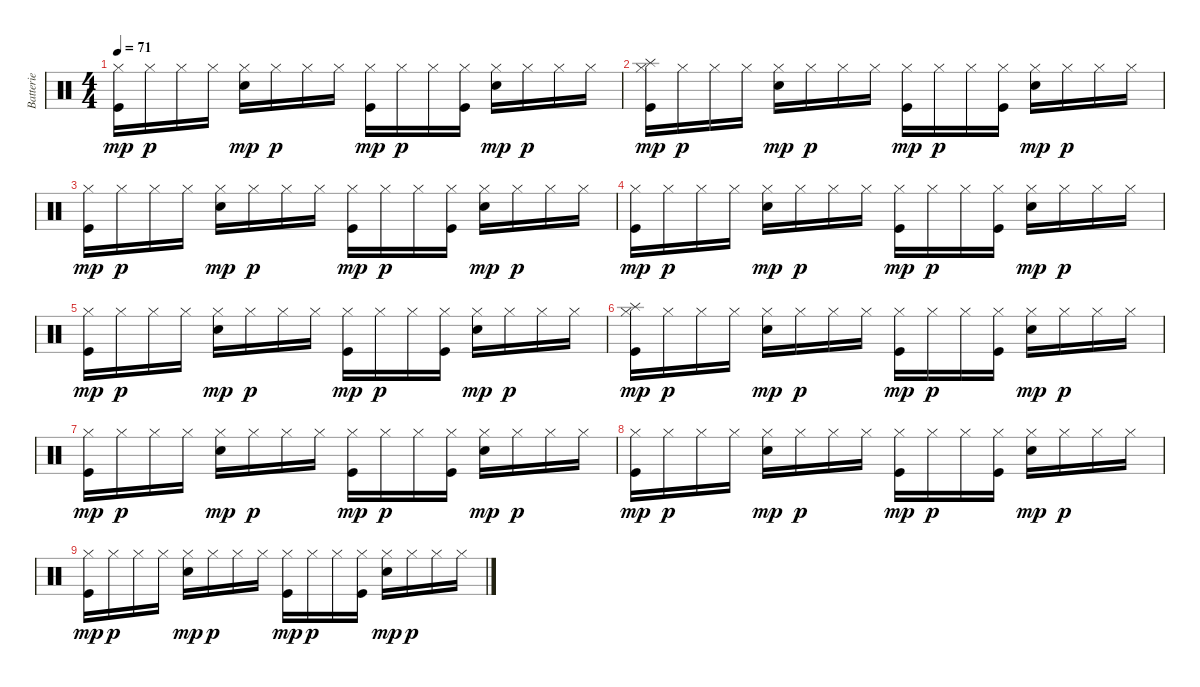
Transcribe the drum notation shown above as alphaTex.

\track ("Batterie" "Batterie") {instrument percussion}
\staff {score}
\articulation defaults
\ts (4 4)
\tempo 71
\clef neutral
\ks c
("Hi-Hat (closed)" "Kick (hit)").16{dy mp} "Hi-Hat (closed)".16{dy p} "Hi-Hat (closed)".16 "Hi-Hat (closed)".16 ("Hi-Hat (closed)" "Electric Snare (hit)").16{dy mp} "Hi-Hat (closed)".16{dy p} "Hi-Hat (closed)".16 "Hi-Hat (closed)".16 ("Hi-Hat (closed)" "Kick (hit)").16{dy mp} "Hi-Hat (closed)".16{dy p} "Hi-Hat (closed)".16 ("Hi-Hat (closed)" "Kick (hit)").16 ("Hi-Hat (closed)" "Electric Snare (hit)").16{dy mp} "Hi-Hat (closed)".16{dy p} "Hi-Hat (closed)".16 "Hi-Hat (closed)".16 |
("Hi-Hat (closed)" "Splash (hit)" "Kick (hit)").16{dy mp} "Hi-Hat (closed)".16{dy p} "Hi-Hat (closed)".16 "Hi-Hat (closed)".16 ("Hi-Hat (closed)" "Electric Snare (hit)").16{dy mp} "Hi-Hat (closed)".16{dy p} "Hi-Hat (closed)".16 "Hi-Hat (closed)".16 ("Hi-Hat (closed)" "Kick (hit)").16{dy mp} "Hi-Hat (closed)".16{dy p} "Hi-Hat (closed)".16 ("Hi-Hat (closed)" "Kick (hit)").16 ("Hi-Hat (closed)" "Electric Snare (hit)").16{dy mp} "Hi-Hat (closed)".16{dy p} "Hi-Hat (closed)".16 "Hi-Hat (closed)".16 |
("Hi-Hat (closed)" "Kick (hit)").16{dy mp} "Hi-Hat (closed)".16{dy p} "Hi-Hat (closed)".16 "Hi-Hat (closed)".16 ("Hi-Hat (closed)" "Electric Snare (hit)").16{dy mp} "Hi-Hat (closed)".16{dy p} "Hi-Hat (closed)".16 "Hi-Hat (closed)".16 ("Hi-Hat (closed)" "Kick (hit)").16{dy mp} "Hi-Hat (closed)".16{dy p} "Hi-Hat (closed)".16 ("Hi-Hat (closed)" "Kick (hit)").16 ("Hi-Hat (closed)" "Electric Snare (hit)").16{dy mp} "Hi-Hat (closed)".16{dy p} "Hi-Hat (closed)".16 "Hi-Hat (closed)".16 |
("Hi-Hat (closed)" "Kick (hit)").16{dy mp} "Hi-Hat (closed)".16{dy p} "Hi-Hat (closed)".16 "Hi-Hat (closed)".16 ("Hi-Hat (closed)" "Electric Snare (hit)").16{dy mp} "Hi-Hat (closed)".16{dy p} "Hi-Hat (closed)".16 "Hi-Hat (closed)".16 ("Hi-Hat (closed)" "Kick (hit)").16{dy mp} "Hi-Hat (closed)".16{dy p} "Hi-Hat (closed)".16 ("Hi-Hat (closed)" "Kick (hit)").16 ("Hi-Hat (closed)" "Electric Snare (hit)").16{dy mp} "Hi-Hat (closed)".16{dy p} "Hi-Hat (closed)".16 "Hi-Hat (closed)".16 |
("Hi-Hat (closed)" "Kick (hit)").16{dy mp} "Hi-Hat (closed)".16{dy p} "Hi-Hat (closed)".16 "Hi-Hat (closed)".16 ("Hi-Hat (closed)" "Electric Snare (hit)").16{dy mp} "Hi-Hat (closed)".16{dy p} "Hi-Hat (closed)".16 "Hi-Hat (closed)".16 ("Hi-Hat (closed)" "Kick (hit)").16{dy mp} "Hi-Hat (closed)".16{dy p} "Hi-Hat (closed)".16 ("Hi-Hat (closed)" "Kick (hit)").16 ("Hi-Hat (closed)" "Electric Snare (hit)").16{dy mp} "Hi-Hat (closed)".16{dy p} "Hi-Hat (closed)".16 "Hi-Hat (closed)".16 |
("Hi-Hat (closed)" "Splash (hit)" "Kick (hit)").16{dy mp} "Hi-Hat (closed)".16{dy p} "Hi-Hat (closed)".16 "Hi-Hat (closed)".16 ("Hi-Hat (closed)" "Electric Snare (hit)").16{dy mp} "Hi-Hat (closed)".16{dy p} "Hi-Hat (closed)".16 "Hi-Hat (closed)".16 ("Hi-Hat (closed)" "Kick (hit)").16{dy mp} "Hi-Hat (closed)".16{dy p} "Hi-Hat (closed)".16 ("Hi-Hat (closed)" "Kick (hit)").16 ("Hi-Hat (closed)" "Electric Snare (hit)").16{dy mp} "Hi-Hat (closed)".16{dy p} "Hi-Hat (closed)".16 "Hi-Hat (closed)".16 |
("Hi-Hat (closed)" "Kick (hit)").16{dy mp} "Hi-Hat (closed)".16{dy p} "Hi-Hat (closed)".16 "Hi-Hat (closed)".16 ("Hi-Hat (closed)" "Electric Snare (hit)").16{dy mp} "Hi-Hat (closed)".16{dy p} "Hi-Hat (closed)".16 "Hi-Hat (closed)".16 ("Hi-Hat (closed)" "Kick (hit)").16{dy mp} "Hi-Hat (closed)".16{dy p} "Hi-Hat (closed)".16 ("Hi-Hat (closed)" "Kick (hit)").16 ("Hi-Hat (closed)" "Electric Snare (hit)").16{dy mp} "Hi-Hat (closed)".16{dy p} "Hi-Hat (closed)".16 "Hi-Hat (closed)".16 |
("Hi-Hat (closed)" "Kick (hit)").16{dy mp} "Hi-Hat (closed)".16{dy p} "Hi-Hat (closed)".16 "Hi-Hat (closed)".16 ("Hi-Hat (closed)" "Electric Snare (hit)").16{dy mp} "Hi-Hat (closed)".16{dy p} "Hi-Hat (closed)".16 "Hi-Hat (closed)".16 ("Hi-Hat (closed)" "Kick (hit)").16{dy mp} "Hi-Hat (closed)".16{dy p} "Hi-Hat (closed)".16 ("Hi-Hat (closed)" "Kick (hit)").16 ("Hi-Hat (closed)" "Electric Snare (hit)").16{dy mp} "Hi-Hat (closed)".16{dy p} "Hi-Hat (closed)".16 "Hi-Hat (closed)".16 |
("Hi-Hat (closed)" "Kick (hit)").16{dy mp} "Hi-Hat (closed)".16{dy p} "Hi-Hat (closed)".16 "Hi-Hat (closed)".16 ("Hi-Hat (closed)" "Electric Snare (hit)").16{dy mp} "Hi-Hat (closed)".16{dy p} "Hi-Hat (closed)".16 "Hi-Hat (closed)".16 ("Hi-Hat (closed)" "Kick (hit)").16{dy mp} "Hi-Hat (closed)".16{dy p} "Hi-Hat (closed)".16 ("Hi-Hat (closed)" "Kick (hit)").16 ("Hi-Hat (closed)" "Electric Snare (hit)").16{dy mp} "Hi-Hat (closed)".16{dy p} "Hi-Hat (closed)".16 "Hi-Hat (closed)".16
